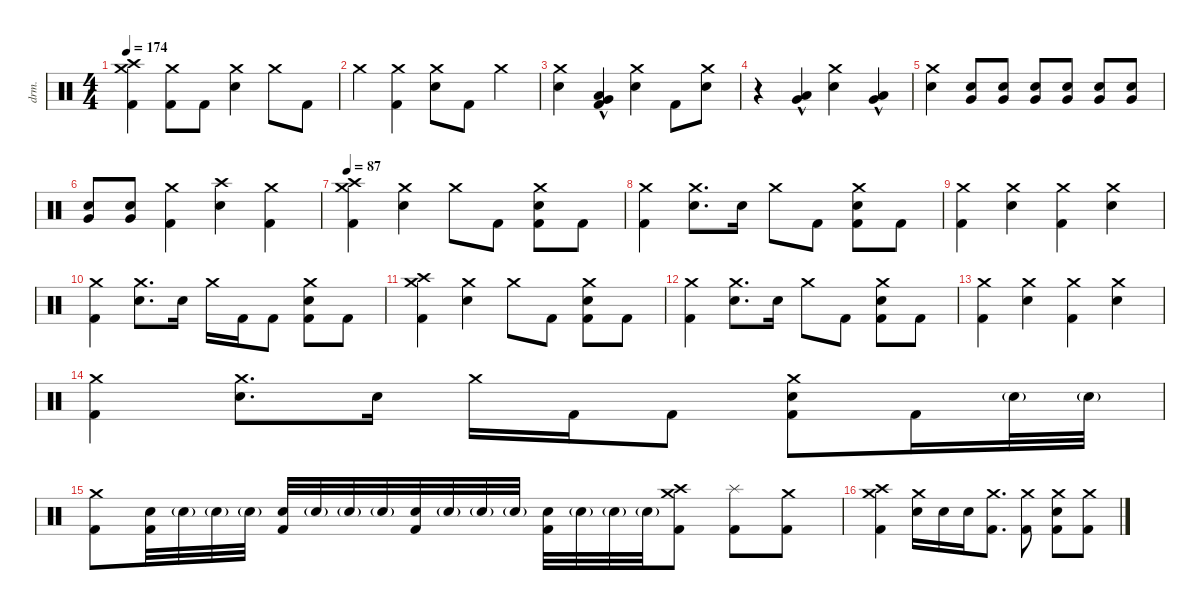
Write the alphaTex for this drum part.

\defaultSystemsLayout 4
\hideDynamics
\bracketExtendMode nobrackets
\track ("Ударные" "drm.") {instrument percussion}
\staff {score}
\articulation defaults
\ts (4 4)
\tempo 174
\clef neutral
\ks c
("Crash high (hit)" "Crash medium (hit)" "Kick (hit) 2").4{dy f} ("Crash medium (hit)" "Kick (hit) 2").8 "Kick (hit) 2".8 ("Crash medium (hit)" "Snare (hit) 2").4 "Crash medium (hit)".8 "Kick (hit) 2".8 |
"Crash medium (hit)".4 ("Crash medium (hit)" "Kick (hit) 2").4 ("Crash medium (hit)" "Snare (hit) 2").8 "Kick (hit) 2".8 "Crash medium (hit)".4 |
("Crash medium (hit)" "Snare (hit) 2").4 ("Low Floor Tom (hit)"{hac} "Very Low Tom (hit)"{hac} "Kick (hit) 2").4 ("Crash medium (hit)" "Snare (hit) 2").4 "Kick (hit) 2".8 ("Crash medium (hit)" "Snare (hit) 2").8 |
r.4 ("Low Floor Tom (hit)"{hac} "Very Low Tom (hit)"{hac}).4 ("Crash medium (hit)" "Snare (hit) 2").4 ("Low Floor Tom (hit)"{hac} "Very Low Tom (hit)"{hac}).4 |
("Crash medium (hit)" "Snare (hit) 2").4 ("Very Low Tom (hit)" "Snare (hit) 2").8 ("Very Low Tom (hit)" "Snare (hit) 2").8 ("Very Low Tom (hit)" "Snare (hit) 2").8 ("Very Low Tom (hit)" "Snare (hit) 2").8 ("Very Low Tom (hit)" "Snare (hit) 2").8 ("Very Low Tom (hit)" "Snare (hit) 2").8 |
("Very Low Tom (hit)" "Snare (hit) 2").8 ("Very Low Tom (hit)" "Snare (hit) 2").8 ("Crash medium (hit)" "Kick (hit) 2").4 ("Crash high (hit)" "Snare (hit) 2").4 ("Crash medium (hit)" "Kick (hit) 2").4 |
\tempo 87
("Crash medium (hit)" "Crash high (hit)" "Kick (hit) 2").4 ("Crash medium (hit)" "Snare (hit) 2").4 "Crash medium (hit)".8 "Kick (hit) 2".8 ("Crash medium (hit)" "Snare (hit) 2" "Kick (hit) 2").8 "Kick (hit) 2".8 |
("Crash medium (hit)" "Kick (hit) 2").4 ("Crash medium (hit)" "Snare (hit) 2").8{d} "Snare (hit) 2".16 "Crash medium (hit)".8 "Kick (hit) 2".8 ("Crash medium (hit)" "Snare (hit) 2" "Kick (hit) 2").8 "Kick (hit) 2".8 |
("Crash medium (hit)" "Kick (hit) 2").4 ("Crash medium (hit)" "Snare (hit) 2").4 ("Crash medium (hit)" "Kick (hit) 2").4 ("Crash medium (hit)" "Snare (hit) 2").4 |
("Crash medium (hit)" "Kick (hit) 2").4 ("Crash medium (hit)" "Snare (hit) 2").8{d} "Snare (hit) 2".16 "Crash medium (hit)".16 "Kick (hit) 2".16 "Kick (hit) 2".8 ("Crash medium (hit)" "Snare (hit) 2" "Kick (hit) 2").8 "Kick (hit) 2".8 |
("Crash medium (hit)" "Crash high (hit)" "Kick (hit) 2").4 ("Crash medium (hit)" "Snare (hit) 2").4 "Crash medium (hit)".8 "Kick (hit) 2".8 ("Crash medium (hit)" "Snare (hit) 2" "Kick (hit) 2").8 "Kick (hit) 2".8 |
("Crash medium (hit)" "Kick (hit) 2").4 ("Crash medium (hit)" "Snare (hit) 2").8{d} "Snare (hit) 2".16 "Crash medium (hit)".8 "Kick (hit) 2".8 ("Crash medium (hit)" "Snare (hit) 2" "Kick (hit) 2").8 "Kick (hit) 2".8 |
("Crash medium (hit)" "Kick (hit) 2").4 ("Crash medium (hit)" "Snare (hit) 2").4 ("Crash medium (hit)" "Kick (hit) 2").4 ("Crash medium (hit)" "Snare (hit) 2").4 |
("Crash medium (hit)" "Kick (hit) 2").4 ("Crash medium (hit)" "Snare (hit) 2").8{d} "Snare (hit) 2".16 "Crash medium (hit)".16 "Kick (hit) 2".16 "Kick (hit) 2".8 ("Crash medium (hit)" "Snare (hit) 2" "Kick (hit) 2").8 "Kick (hit) 2".16 "Snare (hit) 2"{g}.32{dy mf} "Snare (hit) 2"{g}.32 |
("Crash medium (hit)" "Kick (hit) 2").8{dy f} ("Snare (hit) 2" "Kick (hit) 2").32 "Snare (hit) 2"{g}.32{dy mf} "Snare (hit) 2"{g}.32 "Snare (hit) 2"{g}.32 ("Snare (hit) 2" "Kick (hit) 2").32{dy f} "Snare (hit) 2"{g}.32{dy mf} "Snare (hit) 2"{g}.32 "Snare (hit) 2"{g}.32 ("Snare (hit) 2" "Kick (hit) 2").32{dy f} "Snare (hit) 2"{g}.32{dy mf} "Snare (hit) 2"{g}.32 "Snare (hit) 2"{g}.32 ("Snare (hit) 2" "Kick (hit) 2").32{dy f} "Snare (hit) 2"{g}.32{dy mf} "Snare (hit) 2"{g}.32 "Snare (hit) 2"{g}.32 ("Crash medium (hit)" "Crash high (hit)" "Kick (hit) 2").8{dy f} ("Splash (hit)" "Kick (hit) 2").8 ("Crash medium (hit)" "Kick (hit) 2").8 |
("Crash medium (hit)" "Crash high (hit)" "Kick (hit) 2").4 ("Crash medium (hit)" "Snare (hit) 2").16 "Snare (hit) 2".16 "Snare (hit) 2".16 ("Crash medium (hit)" "Kick (hit) 2").8{d} ("Crash medium (hit)" "Kick (hit) 2").8 ("Crash medium (hit)" "Snare (hit) 2" "Kick (hit) 2").8 ("Crash medium (hit)" "Kick (hit) 2").8
